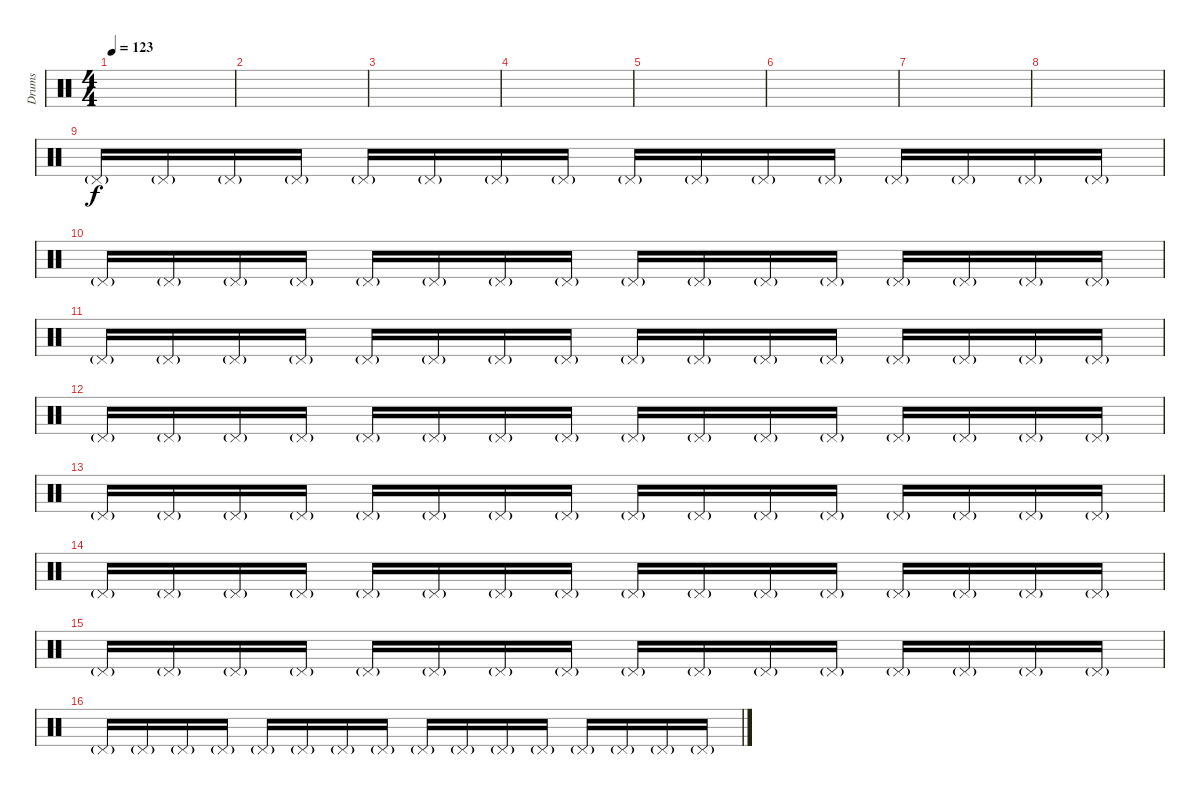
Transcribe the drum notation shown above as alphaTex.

\track ("Drums" "Drums") {instrument percussion}
\staff {score}
\articulation defaults
\ts (4 4)
\tempo 123
\clef neutral
\ks c
|
|
|
|
|
|
|
|
"Pedal Hi-Hat (hit)"{g}.16{volume 8} "Pedal Hi-Hat (hit)"{g}.16 "Pedal Hi-Hat (hit)"{g}.16 "Pedal Hi-Hat (hit)"{g}.16 "Pedal Hi-Hat (hit)"{g}.16 "Pedal Hi-Hat (hit)"{g}.16 "Pedal Hi-Hat (hit)"{g}.16 "Pedal Hi-Hat (hit)"{g}.16 "Pedal Hi-Hat (hit)"{g}.16 "Pedal Hi-Hat (hit)"{g}.16 "Pedal Hi-Hat (hit)"{g}.16 "Pedal Hi-Hat (hit)"{g}.16 "Pedal Hi-Hat (hit)"{g}.16 "Pedal Hi-Hat (hit)"{g}.16 "Pedal Hi-Hat (hit)"{g}.16 "Pedal Hi-Hat (hit)"{g}.16 |
"Pedal Hi-Hat (hit)"{g}.16 "Pedal Hi-Hat (hit)"{g}.16 "Pedal Hi-Hat (hit)"{g}.16 "Pedal Hi-Hat (hit)"{g}.16 "Pedal Hi-Hat (hit)"{g}.16 "Pedal Hi-Hat (hit)"{g}.16 "Pedal Hi-Hat (hit)"{g}.16 "Pedal Hi-Hat (hit)"{g}.16 "Pedal Hi-Hat (hit)"{g}.16 "Pedal Hi-Hat (hit)"{g}.16 "Pedal Hi-Hat (hit)"{g}.16 "Pedal Hi-Hat (hit)"{g}.16 "Pedal Hi-Hat (hit)"{g}.16 "Pedal Hi-Hat (hit)"{g}.16 "Pedal Hi-Hat (hit)"{g}.16 "Pedal Hi-Hat (hit)"{g}.16 |
"Pedal Hi-Hat (hit)"{g}.16 "Pedal Hi-Hat (hit)"{g}.16 "Pedal Hi-Hat (hit)"{g}.16 "Pedal Hi-Hat (hit)"{g}.16 "Pedal Hi-Hat (hit)"{g}.16 "Pedal Hi-Hat (hit)"{g}.16 "Pedal Hi-Hat (hit)"{g}.16 "Pedal Hi-Hat (hit)"{g}.16 "Pedal Hi-Hat (hit)"{g}.16 "Pedal Hi-Hat (hit)"{g}.16 "Pedal Hi-Hat (hit)"{g}.16 "Pedal Hi-Hat (hit)"{g}.16 "Pedal Hi-Hat (hit)"{g}.16 "Pedal Hi-Hat (hit)"{g}.16 "Pedal Hi-Hat (hit)"{g}.16 "Pedal Hi-Hat (hit)"{g}.16 |
"Pedal Hi-Hat (hit)"{g}.16 "Pedal Hi-Hat (hit)"{g}.16 "Pedal Hi-Hat (hit)"{g}.16 "Pedal Hi-Hat (hit)"{g}.16 "Pedal Hi-Hat (hit)"{g}.16 "Pedal Hi-Hat (hit)"{g}.16 "Pedal Hi-Hat (hit)"{g}.16 "Pedal Hi-Hat (hit)"{g}.16 "Pedal Hi-Hat (hit)"{g}.16 "Pedal Hi-Hat (hit)"{g}.16 "Pedal Hi-Hat (hit)"{g}.16 "Pedal Hi-Hat (hit)"{g}.16 "Pedal Hi-Hat (hit)"{g}.16 "Pedal Hi-Hat (hit)"{g}.16 "Pedal Hi-Hat (hit)"{g}.16 "Pedal Hi-Hat (hit)"{g}.16 |
"Pedal Hi-Hat (hit)"{g}.16{volume 8} "Pedal Hi-Hat (hit)"{g}.16 "Pedal Hi-Hat (hit)"{g}.16 "Pedal Hi-Hat (hit)"{g}.16 "Pedal Hi-Hat (hit)"{g}.16 "Pedal Hi-Hat (hit)"{g}.16 "Pedal Hi-Hat (hit)"{g}.16 "Pedal Hi-Hat (hit)"{g}.16 "Pedal Hi-Hat (hit)"{g}.16 "Pedal Hi-Hat (hit)"{g}.16 "Pedal Hi-Hat (hit)"{g}.16 "Pedal Hi-Hat (hit)"{g}.16 "Pedal Hi-Hat (hit)"{g}.16 "Pedal Hi-Hat (hit)"{g}.16 "Pedal Hi-Hat (hit)"{g}.16 "Pedal Hi-Hat (hit)"{g}.16 |
"Pedal Hi-Hat (hit)"{g}.16 "Pedal Hi-Hat (hit)"{g}.16 "Pedal Hi-Hat (hit)"{g}.16 "Pedal Hi-Hat (hit)"{g}.16 "Pedal Hi-Hat (hit)"{g}.16 "Pedal Hi-Hat (hit)"{g}.16 "Pedal Hi-Hat (hit)"{g}.16 "Pedal Hi-Hat (hit)"{g}.16 "Pedal Hi-Hat (hit)"{g}.16 "Pedal Hi-Hat (hit)"{g}.16 "Pedal Hi-Hat (hit)"{g}.16 "Pedal Hi-Hat (hit)"{g}.16 "Pedal Hi-Hat (hit)"{g}.16 "Pedal Hi-Hat (hit)"{g}.16 "Pedal Hi-Hat (hit)"{g}.16 "Pedal Hi-Hat (hit)"{g}.16 |
"Pedal Hi-Hat (hit)"{g}.16 "Pedal Hi-Hat (hit)"{g}.16 "Pedal Hi-Hat (hit)"{g}.16 "Pedal Hi-Hat (hit)"{g}.16 "Pedal Hi-Hat (hit)"{g}.16 "Pedal Hi-Hat (hit)"{g}.16 "Pedal Hi-Hat (hit)"{g}.16 "Pedal Hi-Hat (hit)"{g}.16 "Pedal Hi-Hat (hit)"{g}.16 "Pedal Hi-Hat (hit)"{g}.16 "Pedal Hi-Hat (hit)"{g}.16 "Pedal Hi-Hat (hit)"{g}.16 "Pedal Hi-Hat (hit)"{g}.16 "Pedal Hi-Hat (hit)"{g}.16 "Pedal Hi-Hat (hit)"{g}.16 "Pedal Hi-Hat (hit)"{g}.16 |
"Pedal Hi-Hat (hit)"{g}.16 "Pedal Hi-Hat (hit)"{g}.16 "Pedal Hi-Hat (hit)"{g}.16 "Pedal Hi-Hat (hit)"{g}.16 "Pedal Hi-Hat (hit)"{g}.16 "Pedal Hi-Hat (hit)"{g}.16 "Pedal Hi-Hat (hit)"{g}.16 "Pedal Hi-Hat (hit)"{g}.16 "Pedal Hi-Hat (hit)"{g}.16 "Pedal Hi-Hat (hit)"{g}.16 "Pedal Hi-Hat (hit)"{g}.16 "Pedal Hi-Hat (hit)"{g}.16 "Pedal Hi-Hat (hit)"{g}.16 "Pedal Hi-Hat (hit)"{g}.16 "Pedal Hi-Hat (hit)"{g}.16 "Pedal Hi-Hat (hit)"{g}.16
